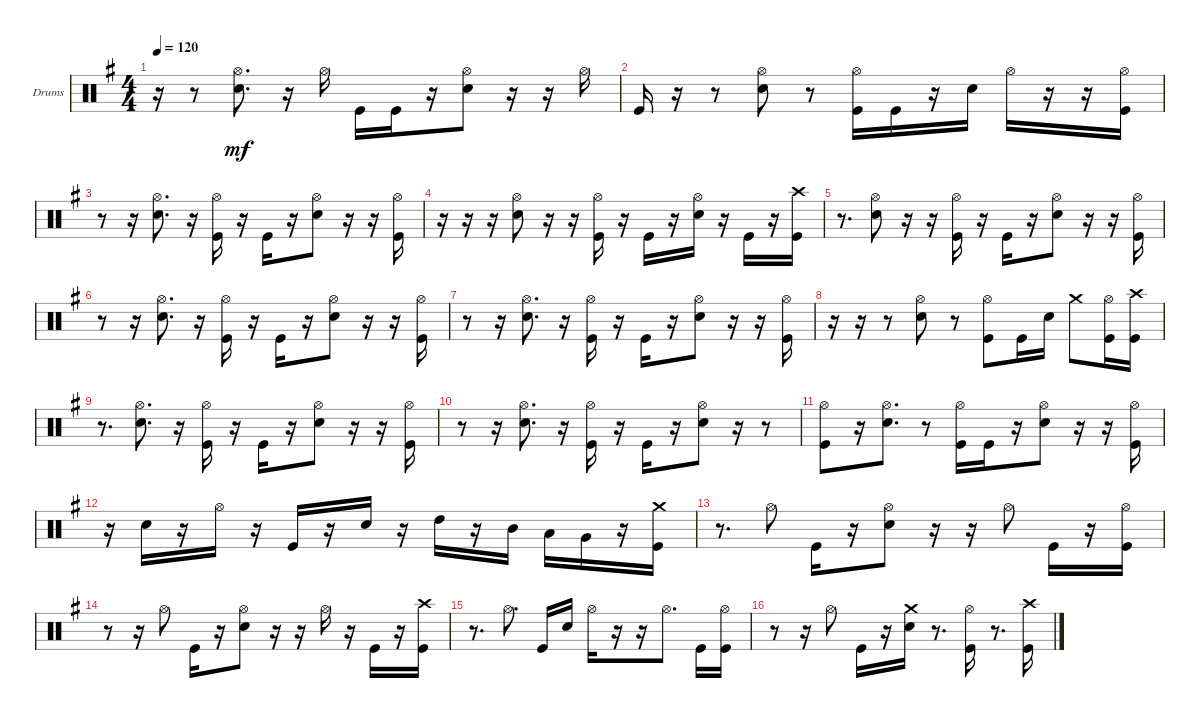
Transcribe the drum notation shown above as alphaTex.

\bracketExtendMode groupsimilarinstruments
\firstSystemTrackNameOrientation horizontal
\otherSystemsTrackNameOrientation horizontal
\track ("Drumkit" "Drums") {multiBarRest instrument percussion}
\staff {score}
\articulation defaults
\ts (4 4)
\tempo 120
\clef neutral
\scale
0.333333
\ks g
r.16{dy mf} r.8 ("Hi-Hat (open)" "Snare (hit) 2").8{d} r.16 "Hi-Hat (open)".16 "Kick (hit)".16 "Kick (hit)".16 r.16 ("Snare (hit) 2" "Hi-Hat (open)").8 r.16 r.16 "Hi-Hat (open)".16 |
\scale
0.333333 "Kick (hit)".16 r.16 r.8 ("Snare (hit) 2" "Hi-Hat (open)").8 r.8 ("Hi-Hat (open)" "Kick (hit)").16 "Kick (hit)".16 r.16 "Snare (hit) 2".16 "Hi-Hat (open)".16 r.16 r.16 ("Kick (hit)" "Hi-Hat (open)").16 |
\scale
0.333333 r.8 r.16 ("Hi-Hat (open)" "Snare (hit) 2").8{d} r.16 ("Kick (hit)" "Hi-Hat (open)").16 r.16 "Kick (hit)".16 r.16 ("Snare (hit) 2" "Hi-Hat (open)").8 r.16 r.16 ("Kick (hit)" "Hi-Hat (open)").16 |
\scale
0.333333 r.16 r.16 r.16 ("Snare (hit) 2" "Hi-Hat (open)").8 r.16 r.16 ("Kick (hit)" "Hi-Hat (open)").16 r.16 "Kick (hit)".16 r.16 ("Snare (hit) 2" "Hi-Hat (open)").16 r.16 "Kick (hit)".16 r.16 ("Kick (hit)" "Crash high (hit)").16 |
\scale
0.333333 r.8{d} ("Hi-Hat (open)" "Snare (hit) 2").8 r.16 r.16 ("Kick (hit)" "Hi-Hat (open)").16 r.16 "Kick (hit)".16 r.16 ("Snare (hit) 2" "Hi-Hat (open)").8 r.16 r.16 ("Hi-Hat (open)" "Kick (hit)").16 |
\scale
0.333333 r.8 r.16 ("Hi-Hat (open)" "Snare (hit) 2").8{d} r.16 ("Hi-Hat (open)" "Kick (hit)").16 r.16 "Kick (hit)".16 r.16 ("Snare (hit) 2" "Hi-Hat (open)").8 r.16 r.16 ("Hi-Hat (open)" "Kick (hit)").16 |
\scale
0.333333 r.8 r.16 ("Hi-Hat (open)" "Snare (hit) 2").8{d} r.16 ("Hi-Hat (open)" "Kick (hit)").16 r.16 "Kick (hit)".16 r.16 ("Snare (hit) 2" "Hi-Hat (open)").8 r.16 r.16 ("Kick (hit)" "Hi-Hat (open)").16 |
\scale
0.333333 r.16 r.16 r.8 ("Hi-Hat (open)" "Snare (hit) 2").8 r.8 ("Kick (hit)" "Hi-Hat (open)").8 "Kick (hit)".16 "Snare (hit) 2".16 "Crash medium (hit)".8 ("Hi-Hat (open)" "Kick (hit)").16 ("Kick (hit)" "Crash high (hit)").16 |
\scale
0.333333 r.8{d} ("Hi-Hat (open)" "Snare (hit) 2").8{d} r.16 ("Hi-Hat (open)" "Kick (hit)").16 r.16 "Kick (hit)".16 r.16 ("Snare (hit) 2" "Hi-Hat (open)").8 r.16 r.16 ("Kick (hit)" "Hi-Hat (open)").16 |
\scale
0.333333 r.8 r.16 ("Snare (hit) 2" "Hi-Hat (open)").8{d} r.16 ("Kick (hit)" "Hi-Hat (open)").16 r.16 "Kick (hit)".16 r.16 ("Snare (hit) 2" "Hi-Hat (open)").8 r.16 r.8 |
\scale
0.333333 ("Hi-Hat (open)" "Kick (hit)").8 r.16 ("Snare (hit) 2" "Hi-Hat (open)").8{d} r.8 ("Hi-Hat (open)" "Kick (hit)").16 "Kick (hit)".16 r.16 ("Snare (hit) 2" "Hi-Hat (open)").8 r.16 r.16 ("Hi-Hat (open)" "Kick (hit)").16 |
\scale
0.333333 r.16 "Snare (hit) 2".16 r.16 "Hi-Hat (open)".16 r.16 "Kick (hit)".16 r.16 "Snare (hit) 2".16 r.16 "High Tom (hit)".16 r.16 "Mid Tom (hit)".16 "Low Tom (hit)".16 "Very Low Tom (hit)".16 r.16 ("Crash medium (hit)" "Kick (hit)").16 |
\scale
0.333333 r.8{d} "Hi-Hat (open)".8 "Kick (hit)".16 r.16 ("Snare (hit) 2" "Hi-Hat (open)").8 r.16 r.16 "Hi-Hat (open)".8 "Kick (hit)".16 r.16 ("Kick (hit)" "Hi-Hat (open)").16 |
\scale
0.333333 r.8 r.16 "Hi-Hat (open)".8 "Kick (hit)".16 r.16 ("Hi-Hat (open)" "Snare (hit) 2").8 r.16 r.16 "Hi-Hat (open)".16 r.16 "Kick (hit)".16 r.16 ("Crash high (hit)" "Kick (hit)").16 |
\scale
0.333333 r.8{d} "Hi-Hat (open)".8{d} "Kick (hit)".16 "Snare (hit) 2".16 "Hi-Hat (open)".16 r.16 r.16 "Hi-Hat (open)".8{d} "Kick (hit)".16 ("Kick (hit)" "Hi-Hat (open)").16 |
\scale
0.333333 r.8 r.16 "Hi-Hat (open)".8 "Kick (hit)".16 r.16 ("Snare (hit) 2" "Crash medium (hit)").16 r.8{d} ("Hi-Hat (open)" "Kick (hit)").16 r.8{d} ("Crash high (hit)" "Kick (hit)").16
